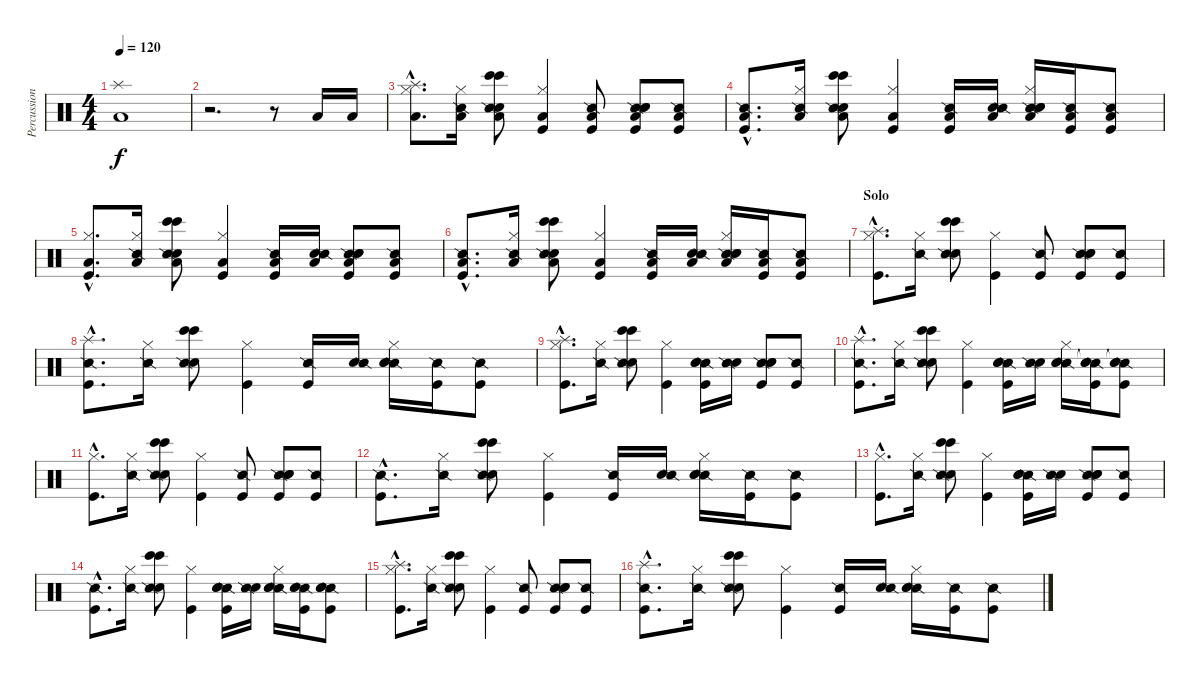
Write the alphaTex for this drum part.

\track ("Percussion" "Percussion") {instrument percussion}
\staff {score}
\articulation defaults
\ts (4 4)
\tempo 120
\clef neutral
\ks c
("Splash (hit)" "Low Floor Tom (hit)").1{dy f} |
r.2{d} r.8 "Low Floor Tom (hit)".16 "Low Floor Tom (hit)".16 |
("Splash (hit)"{hac} "Hi-Hat (closed)"{hac} "Low Floor Tom (hit)"{hac}).8{d} ("Hi-Hat (closed)" "Snare (side stick) 2" "Low Floor Tom (hit)").16 ("Snare (hit) 2" "Snare (side stick) 2" "Low Floor Tom (hit)" "Bongo High (hit)" "Bongo High (hit)").8 ("Kick (hit)" "Hi-Hat (closed)" "Low Floor Tom (hit)").4 ("Kick (hit)" "Snare (side stick) 2" "Low Floor Tom (hit)").8 ("Kick (hit)" "Snare (side stick) 2" "Low Floor Tom (hit)" "Electric Snare (hit)" "Electric Snare (hit)").8 ("Kick (hit)" "Snare (side stick) 2" "Low Floor Tom (hit)").8 |
("Kick (hit)"{hac} "Snare (side stick) 2"{hac} "Low Floor Tom (hit)"{hac}).8{d} ("Hi-Hat (closed)" "Snare (side stick) 2" "Low Floor Tom (hit)").16 ("Snare (hit) 2" "Snare (side stick) 2" "Low Floor Tom (hit)" "Bongo High (hit)" "Bongo High (hit)").8 ("Kick (hit)" "Hi-Hat (closed)" "Low Floor Tom (hit)").4 ("Kick (hit)" "Snare (side stick) 2" "Low Floor Tom (hit)").16 ("Snare (hit) 2" "Snare (side stick) 2" "Low Floor Tom (hit)").16 ("Hi-Hat (closed)" "Snare (side stick) 2" "Low Floor Tom (hit)" "Electric Snare (hit)" "Electric Snare (hit)").16 ("Kick (hit)" "Snare (side stick) 2" "Low Floor Tom (hit)").16 ("Kick (hit)" "Snare (side stick) 2" "Low Floor Tom (hit)").8 |
("Kick (hit)"{hac} "Hi-Hat (closed)"{hac} "Low Floor Tom (hit)"{hac}).8{d} ("Hi-Hat (closed)" "Snare (side stick) 2" "Low Floor Tom (hit)").16 ("Snare (hit) 2" "Snare (side stick) 2" "Low Floor Tom (hit)" "Bongo High (hit)" "Bongo High (hit)").8 ("Kick (hit)" "Hi-Hat (closed)" "Low Floor Tom (hit)").4 ("Kick (hit)" "Snare (side stick) 2" "Low Floor Tom (hit)").16 ("Snare (hit) 2" "Snare (side stick) 2" "Low Floor Tom (hit)").16 ("Kick (hit)" "Snare (side stick) 2" "Low Floor Tom (hit)" "Electric Snare (hit)" "Electric Snare (hit)").8 ("Kick (hit)" "Snare (side stick) 2" "Low Floor Tom (hit)").8 |
("Kick (hit)"{hac} "Snare (side stick) 2"{hac} "Low Floor Tom (hit)"{hac}).8{d} ("Hi-Hat (closed)" "Snare (side stick) 2" "Low Floor Tom (hit)").16 ("Snare (hit) 2" "Snare (side stick) 2" "Low Floor Tom (hit)" "Bongo High (hit)" "Bongo High (hit)").8 ("Kick (hit)" "Hi-Hat (closed)" "Low Floor Tom (hit)").4 ("Kick (hit)" "Snare (side stick) 2" "Low Floor Tom (hit)").16 ("Snare (hit) 2" "Snare (side stick) 2" "Low Floor Tom (hit)").16 ("Hi-Hat (closed)" "Snare (side stick) 2" "Low Floor Tom (hit)" "Electric Snare (hit)" "Electric Snare (hit)").16 ("Kick (hit)" "Snare (side stick) 2" "Low Floor Tom (hit)").16 ("Kick (hit)" "Snare (side stick) 2" "Low Floor Tom (hit)").8 |
\section ("" "Solo")
("Kick (hit)"{hac} "Hi-Hat (closed)"{hac} "Splash (hit)"{hac}).8{d} ("Hi-Hat (closed)" "Snare (side stick) 2").16 ("Snare (hit) 2" "Snare (side stick) 2" "Bongo High (hit)" "Bongo High (hit)").8 ("Kick (hit)" "Hi-Hat (closed)").4 ("Kick (hit)" "Snare (side stick) 2").8 ("Kick (hit)" "Snare (side stick) 2" "Electric Snare (hit)" "Electric Snare (hit)").8 ("Kick (hit)" "Snare (side stick) 2").8 |
("Kick (hit)"{hac} "Snare (side stick) 2"{hac} "Splash (hit)"{hac}).8{d} ("Hi-Hat (closed)" "Snare (side stick) 2").16 ("Snare (hit) 2" "Snare (side stick) 2" "Bongo High (hit)" "Bongo High (hit)").8 ("Kick (hit)" "Hi-Hat (closed)").4 ("Kick (hit)" "Snare (side stick) 2").16 ("Snare (hit) 2" "Snare (side stick) 2").16 ("Hi-Hat (closed)" "Snare (side stick) 2" "Electric Snare (hit)" "Electric Snare (hit)").16 ("Kick (hit)" "Snare (side stick) 2").16 ("Kick (hit)" "Snare (side stick) 2").8 |
("Kick (hit)"{hac} "Hi-Hat (closed)"{hac} "Splash (hit)"{hac}).8{d} ("Hi-Hat (closed)" "Snare (side stick) 2").16 ("Snare (hit) 2" "Snare (side stick) 2" "Bongo High (hit)" "Bongo High (hit)").8 ("Kick (hit)" "Hi-Hat (closed)").4 ("Kick (hit)" "Snare (side stick) 2" "Electric Snare (hit)" "Electric Snare (hit)").16 ("Snare (hit) 2" "Snare (side stick) 2").16 ("Kick (hit)" "Snare (side stick) 2" "Electric Snare (hit)" "Electric Snare (hit)").8 ("Kick (hit)" "Snare (side stick) 2").8 |
("Kick (hit)"{hac} "Snare (side stick) 2"{hac} "Splash (hit)"{hac}).8{d} ("Hi-Hat (closed)" "Snare (side stick) 2").16 ("Snare (hit) 2" "Snare (side stick) 2" "Bongo High (hit)" "Bongo High (hit)").8 ("Kick (hit)" "Hi-Hat (closed)").4 ("Kick (hit)" "Snare (side stick) 2" "Electric Snare (hit)" "Electric Snare (hit)").16 ("Snare (hit) 2" "Snare (side stick) 2").16 ("Hi-Hat (closed)" "Snare (side stick) 2" "Electric Snare (hit)" "Electric Snare (hit)").16 ("Kick (hit)" "Snare (side stick) 2" "Snare (hit)"{t} "Snare (hit)"{t}).16 ("Kick (hit)" "Snare (side stick) 2" "Snare (hit)"{t} "Snare (hit)"{t}).8 |
("Kick (hit)"{hac} "Hi-Hat (closed)"{hac}).8{d} ("Hi-Hat (closed)" "Snare (side stick) 2").16 ("Snare (hit) 2" "Snare (side stick) 2" "Bongo High (hit)" "Bongo High (hit)").8 ("Kick (hit)" "Hi-Hat (closed)").4 ("Kick (hit)" "Snare (side stick) 2").8 ("Kick (hit)" "Snare (side stick) 2" "Electric Snare (hit)" "Electric Snare (hit)").8 ("Kick (hit)" "Snare (side stick) 2").8 |
("Kick (hit)"{hac} "Snare (side stick) 2"{hac}).8{d} ("Hi-Hat (closed)" "Snare (side stick) 2").16 ("Snare (hit) 2" "Snare (side stick) 2" "Bongo High (hit)" "Bongo High (hit)").8 ("Kick (hit)" "Hi-Hat (closed)").4 ("Kick (hit)" "Snare (side stick) 2").16 ("Snare (hit) 2" "Snare (side stick) 2").16 ("Hi-Hat (closed)" "Snare (side stick) 2" "Electric Snare (hit)" "Electric Snare (hit)").16 ("Kick (hit)" "Snare (side stick) 2").16 ("Kick (hit)" "Snare (side stick) 2").8 |
("Kick (hit)"{hac} "Hi-Hat (closed)"{hac}).8{d} ("Hi-Hat (closed)" "Snare (side stick) 2").16 ("Snare (hit) 2" "Snare (side stick) 2" "Bongo High (hit)" "Bongo High (hit)").8 ("Kick (hit)" "Hi-Hat (closed)").4 ("Kick (hit)" "Snare (side stick) 2" "Electric Snare (hit)" "Electric Snare (hit)").16 ("Snare (hit) 2" "Snare (side stick) 2").16 ("Kick (hit)" "Snare (side stick) 2" "Electric Snare (hit)" "Electric Snare (hit)").8 ("Kick (hit)" "Snare (side stick) 2").8 |
("Kick (hit)"{hac} "Snare (side stick) 2"{hac}).8{d} ("Hi-Hat (closed)" "Snare (side stick) 2").16 ("Snare (hit) 2" "Snare (side stick) 2" "Bongo High (hit)" "Bongo High (hit)").8 ("Kick (hit)" "Hi-Hat (closed)").4 ("Kick (hit)" "Snare (side stick) 2" "Electric Snare (hit)" "Electric Snare (hit)").16 ("Snare (hit) 2" "Snare (side stick) 2").16 ("Hi-Hat (closed)" "Snare (side stick) 2" "Electric Snare (hit)" "Electric Snare (hit)").16 ("Kick (hit)" "Snare (side stick) 2" "Snare (hit)"{t} "Snare (hit)"{t}).16 ("Kick (hit)" "Snare (side stick) 2" "Snare (hit)"{t} "Snare (hit)"{t}).8 |
("Kick (hit)"{hac} "Hi-Hat (closed)"{hac} "Splash (hit)"{hac}).8{d} ("Hi-Hat (closed)" "Snare (side stick) 2").16 ("Snare (hit) 2" "Snare (side stick) 2" "Bongo High (hit)" "Bongo High (hit)").8 ("Kick (hit)" "Hi-Hat (closed)").4 ("Kick (hit)" "Snare (side stick) 2").8 ("Kick (hit)" "Snare (side stick) 2" "Electric Snare (hit)" "Electric Snare (hit)").8 ("Kick (hit)" "Snare (side stick) 2").8 |
("Kick (hit)"{hac} "Snare (side stick) 2"{hac} "Splash (hit)"{hac}).8{d} ("Hi-Hat (closed)" "Snare (side stick) 2").16 ("Snare (hit) 2" "Snare (side stick) 2" "Bongo High (hit)" "Bongo High (hit)").8 ("Kick (hit)" "Hi-Hat (closed)").4 ("Kick (hit)" "Snare (side stick) 2").16 ("Snare (hit) 2" "Snare (side stick) 2").16 ("Hi-Hat (closed)" "Snare (side stick) 2" "Electric Snare (hit)" "Electric Snare (hit)").16 ("Kick (hit)" "Snare (side stick) 2").16 ("Kick (hit)" "Snare (side stick) 2").8
